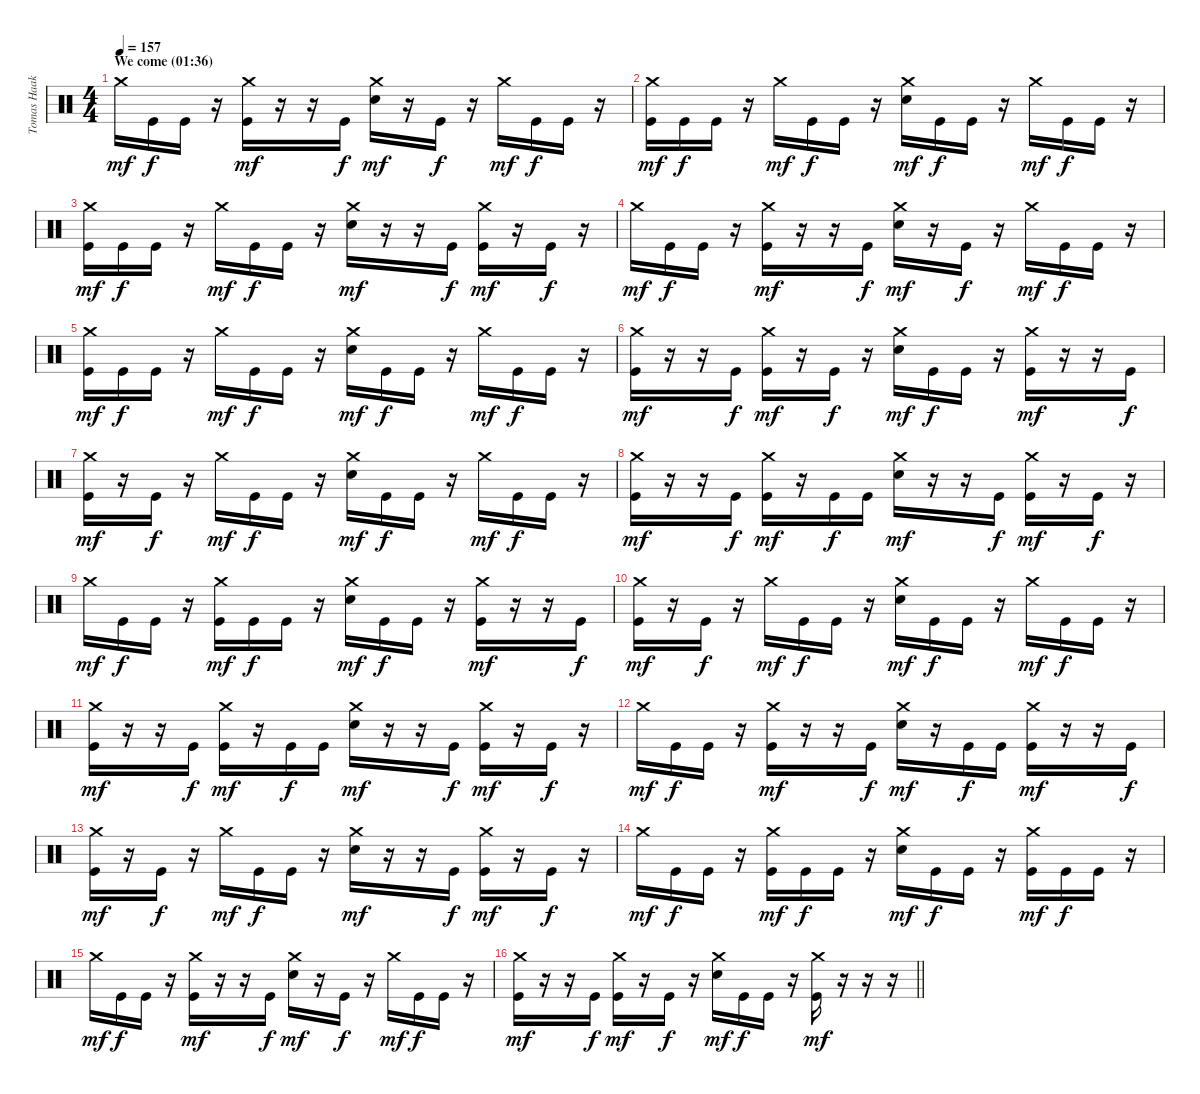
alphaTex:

\track ("Tomas Haake (Drums)" "Tomas Haak") {instrument percussion}
\staff {score}
\articulation defaults
\ts (4 4)
\section ("" "We come (01:36)")
\tempo 157
\clef neutral
\ks c "Crash medium (hit)".16{dy mf} "Kick (hit)".16{dy f} "Kick (hit)".16
r.16 ("Crash medium (hit)" "Kick (hit)").16{dy mf} r.16 r.16 "Kick (hit)".16{dy f} ("Crash medium (hit)" "Electric Snare (hit)").16{dy mf} r.16 "Kick (hit)".16{dy f} r.16 "Crash medium (hit)".16{dy mf} "Kick (hit)".16{dy f} "Kick (hit)".16 r.16 |
("Crash medium (hit)" "Kick (hit)").16{dy mf} "Kick (hit)".16{dy f} "Kick (hit)".16 r.16 "Crash medium (hit)".16{dy mf} "Kick (hit)".16{dy f} "Kick (hit)".16 r.16 ("Crash medium (hit)" "Electric Snare (hit)").16{dy mf} "Kick (hit)".16{dy f} "Kick (hit)".16 r.16 "Crash medium (hit)".16{dy mf} "Kick (hit)".16{dy f} "Kick (hit)".16 r.16 |
("Crash medium (hit)" "Kick (hit)").16{dy mf} "Kick (hit)".16{dy f} "Kick (hit)".16 r.16 "Crash medium (hit)".16{dy mf} "Kick (hit)".16{dy f} "Kick (hit)".16 r.16 ("Crash medium (hit)" "Electric Snare (hit)").16{dy mf} r.16 r.16 "Kick (hit)".16{dy f} ("Crash medium (hit)" "Kick (hit)").16{dy mf} r.16 "Kick (hit)".16{dy f} r.16 |
"Crash medium (hit)".16{dy mf} "Kick (hit)".16{dy f} "Kick (hit)".16 r.16 ("Crash medium (hit)" "Kick (hit)").16{dy mf} r.16 r.16 "Kick (hit)".16{dy f} ("Crash medium (hit)" "Electric Snare (hit)").16{dy mf} r.16 "Kick (hit)".16{dy f} r.16 "Crash medium (hit)".16{dy mf} "Kick (hit)".16{dy f} "Kick (hit)".16 r.16 |
("Crash medium (hit)" "Kick (hit)").16{dy mf} "Kick (hit)".16{dy f} "Kick (hit)".16 r.16 "Crash medium (hit)".16{dy mf} "Kick (hit)".16{dy f} "Kick (hit)".16 r.16 ("Crash medium (hit)" "Electric Snare (hit)").16{dy mf} "Kick (hit)".16{dy f} "Kick (hit)".16 r.16 "Crash medium (hit)".16{dy mf} "Kick (hit)".16{dy f} "Kick (hit)".16 r.16 |
("Crash medium (hit)" "Kick (hit)").16{dy mf} r.16 r.16 "Kick (hit)".16{dy f} ("Crash medium (hit)" "Kick (hit)").16{dy mf} r.16 "Kick (hit)".16{dy f} r.16 ("Crash medium (hit)" "Electric Snare (hit)").16{dy mf} "Kick (hit)".16{dy f} "Kick (hit)".16 r.16 ("Crash medium (hit)" "Kick (hit)").16{dy mf} r.16 r.16 "Kick (hit)".16{dy f} |
("Crash medium (hit)" "Kick (hit)").16{dy mf} r.16 "Kick (hit)".16{dy f} r.16 "Crash medium (hit)".16{dy mf} "Kick (hit)".16{dy f} "Kick (hit)".16 r.16 ("Crash medium (hit)" "Electric Snare (hit)").16{dy mf} "Kick (hit)".16{dy f} "Kick (hit)".16 r.16 "Crash medium (hit)".16{dy mf} "Kick (hit)".16{dy f} "Kick (hit)".16 r.16 |
("Crash medium (hit)" "Kick (hit)").16{dy mf} r.16 r.16 "Kick (hit)".16{dy f} ("Crash medium (hit)" "Kick (hit)").16{dy mf} r.16 "Kick (hit)".16{dy f} "Kick (hit)".16 ("Crash medium (hit)" "Electric Snare (hit)").16{dy mf} r.16 r.16 "Kick (hit)".16{dy f} ("Crash medium (hit)" "Kick (hit)").16{dy mf} r.16 "Kick (hit)".16{dy f} r.16 |
"Crash medium (hit)".16{dy mf} "Kick (hit)".16{dy f} "Kick (hit)".16 r.16 ("Crash medium (hit)" "Kick (hit)").16{dy mf} "Kick (hit)".16{dy f} "Kick (hit)".16 r.16 ("Crash medium (hit)" "Electric Snare (hit)").16{dy mf} "Kick (hit)".16{dy f} "Kick (hit)".16 r.16 ("Crash medium (hit)" "Kick (hit)").16{dy mf} r.16 r.16 "Kick (hit)".16{dy f} |
("Crash medium (hit)" "Kick (hit)").16{dy mf} r.16 "Kick (hit)".16{dy f} r.16 "Crash medium (hit)".16{dy mf} "Kick (hit)".16{dy f} "Kick (hit)".16 r.16 ("Crash medium (hit)" "Electric Snare (hit)").16{dy mf} "Kick (hit)".16{dy f} "Kick (hit)".16 r.16 "Crash medium (hit)".16{dy mf} "Kick (hit)".16{dy f} "Kick (hit)".16 r.16 |
("Crash medium (hit)" "Kick (hit)").16{dy mf} r.16 r.16 "Kick (hit)".16{dy f} ("Crash medium (hit)" "Kick (hit)").16{dy mf} r.16 "Kick (hit)".16{dy f} "Kick (hit)".16 ("Crash medium (hit)" "Electric Snare (hit)").16{dy mf} r.16 r.16 "Kick (hit)".16{dy f} ("Crash medium (hit)" "Kick (hit)").16{dy mf} r.16 "Kick (hit)".16{dy f} r.16 |
"Crash medium (hit)".16{dy mf} "Kick (hit)".16{dy f} "Kick (hit)".16 r.16 ("Crash medium (hit)" "Kick (hit)").16{dy mf} r.16 r.16 "Kick (hit)".16{dy f} ("Crash medium (hit)" "Electric Snare (hit)").16{dy mf} r.16 "Kick (hit)".16{dy f} "Kick (hit)".16 ("Crash medium (hit)" "Kick (hit)").16{dy mf} r.16 r.16 "Kick (hit)".16{dy f} |
("Crash medium (hit)" "Kick (hit)").16{dy mf} r.16 "Kick (hit)".16{dy f} r.16 "Crash medium (hit)".16{dy mf} "Kick (hit)".16{dy f} "Kick (hit)".16 r.16 ("Crash medium (hit)" "Electric Snare (hit)").16{dy mf} r.16 r.16 "Kick (hit)".16{dy f} ("Crash medium (hit)" "Kick (hit)").16{dy mf} r.16 "Kick (hit)".16{dy f} r.16 |
"Crash medium (hit)".16{dy mf} "Kick (hit)".16{dy f} "Kick (hit)".16 r.16 ("Crash medium (hit)" "Kick (hit)").16{dy mf} "Kick (hit)".16{dy f} "Kick (hit)".16 r.16 ("Crash medium (hit)" "Electric Snare (hit)").16{dy mf} "Kick (hit)".16{dy f} "Kick (hit)".16 r.16 ("Crash medium (hit)" "Kick (hit)").16{dy mf} "Kick (hit)".16{dy f} "Kick (hit)".16 r.16 |
"Crash medium (hit)".16{dy mf} "Kick (hit)".16{dy f} "Kick (hit)".16 r.16 ("Crash medium (hit)" "Kick (hit)").16{dy mf} r.16 r.16 "Kick (hit)".16{dy f} ("Crash medium (hit)" "Electric Snare (hit)").16{dy mf} r.16 "Kick (hit)".16{dy f} r.16 "Crash medium (hit)".16{dy mf} "Kick (hit)".16{dy f} "Kick (hit)".16 r.16 |
\barLineRight lightlight
("Crash medium (hit)" "Kick (hit)").16{dy mf} r.16 r.16 "Kick (hit)".16{dy f} ("Crash medium (hit)" "Kick (hit)").16{dy mf} r.16 "Kick (hit)".16{dy f} r.16 ("Crash medium (hit)" "Electric Snare (hit)").16{dy mf} "Kick (hit)".16{dy f} "Kick (hit)".16 r.16 ("Crash medium (hit)" "Kick (hit)").16{dy mf} r.16 r.16 r.16
